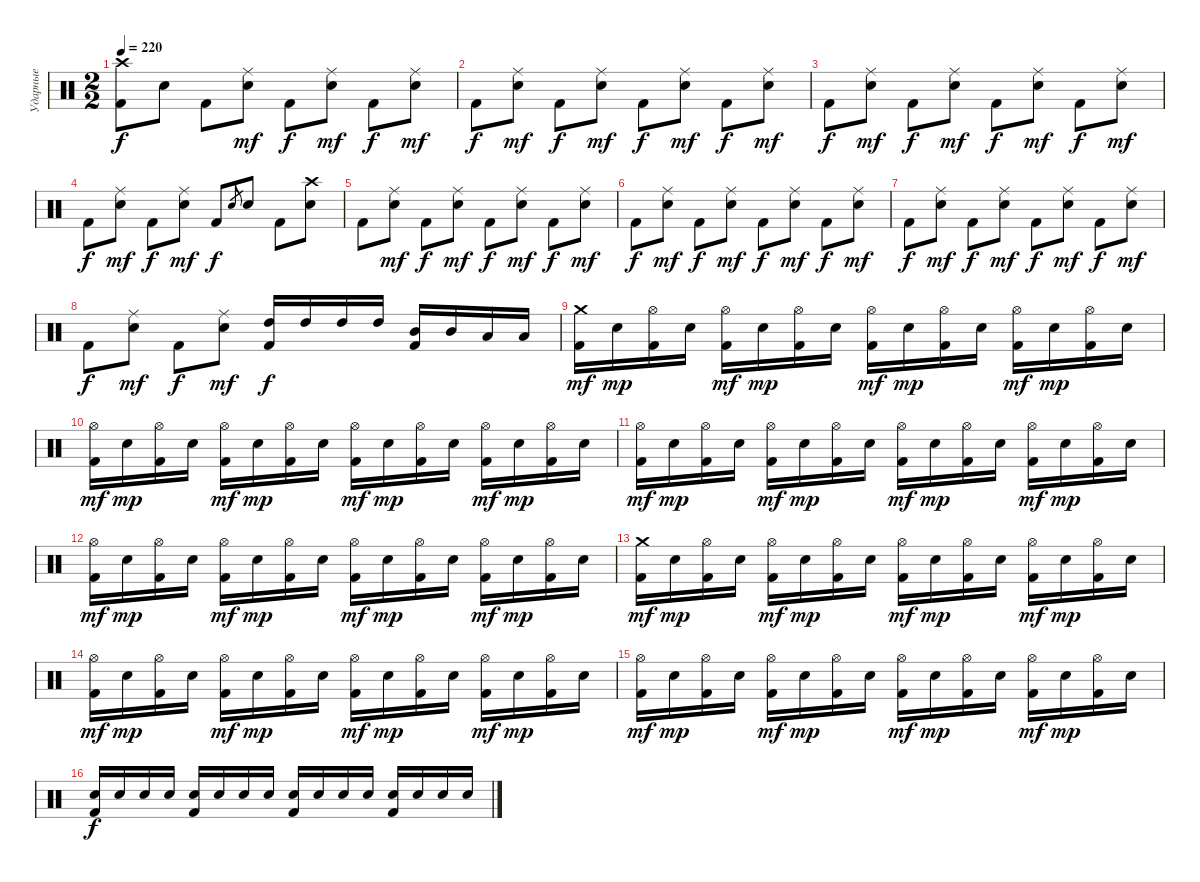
\track ("Ударные" "Ударные") {instrument percussion}
\staff {score}
\articulation defaults
\ts (2 2)
\tempo 220
\clef neutral
\ks c
("Crash high (hit)" "Kick (hit) 2").8{dy f} "Electric Snare (hit)".8 "Kick (hit) 2".8 ("Ride (middle)" "Electric Snare (hit)").8{dy mf} "Kick (hit) 2".8{dy f} ("Ride (middle)" "Electric Snare (hit)").8{dy mf} "Kick (hit) 2".8{dy f} ("Ride (middle)" "Electric Snare (hit)").8{dy mf} |
"Kick (hit) 2".8{dy f} ("Ride (middle)" "Electric Snare (hit)").8{dy mf} "Kick (hit) 2".8{dy f} ("Ride (middle)" "Electric Snare (hit)").8{dy mf} "Kick (hit) 2".8{dy f} ("Ride (middle)" "Electric Snare (hit)").8{dy mf} "Kick (hit) 2".8{dy f} ("Ride (middle)" "Electric Snare (hit)").8{dy mf} |
"Kick (hit) 2".8{dy f} ("Ride (middle)" "Electric Snare (hit)").8{dy mf} "Kick (hit) 2".8{dy f} ("Ride (middle)" "Electric Snare (hit)").8{dy mf} "Kick (hit) 2".8{dy f} ("Ride (middle)" "Electric Snare (hit)").8{dy mf} "Kick (hit) 2".8{dy f} ("Ride (middle)" "Electric Snare (hit)").8{dy mf} |
"Kick (hit) 2".8{dy f} ("Ride (middle)" "Electric Snare (hit)").8{dy mf} "Kick (hit) 2".8{dy f} ("Ride (middle)" "Electric Snare (hit)").8{dy mf} "Kick (hit) 2".8{dy f} "Electric Snare (hit)".8{gr} "Electric Snare (hit)".8 "Kick (hit) 2".8 ("Crash high (hit)" "Electric Snare (hit)").8 |
"Kick (hit) 2".8 ("Ride (middle)" "Electric Snare (hit)").8{dy mf} "Kick (hit) 2".8{dy f} ("Ride (middle)" "Electric Snare (hit)").8{dy mf} "Kick (hit) 2".8{dy f} ("Ride (middle)" "Electric Snare (hit)").8{dy mf} "Kick (hit) 2".8{dy f} ("Ride (middle)" "Electric Snare (hit)").8{dy mf} |
"Kick (hit) 2".8{dy f} ("Ride (middle)" "Electric Snare (hit)").8{dy mf} "Kick (hit) 2".8{dy f} ("Ride (middle)" "Electric Snare (hit)").8{dy mf} "Kick (hit) 2".8{dy f} ("Ride (middle)" "Electric Snare (hit)").8{dy mf} "Kick (hit) 2".8{dy f} ("Ride (middle)" "Electric Snare (hit)").8{dy mf} |
"Kick (hit) 2".8{dy f} ("Ride (middle)" "Electric Snare (hit)").8{dy mf} "Kick (hit) 2".8{dy f} ("Ride (middle)" "Electric Snare (hit)").8{dy mf} "Kick (hit) 2".8{dy f} ("Ride (middle)" "Electric Snare (hit)").8{dy mf} "Kick (hit) 2".8{dy f} ("Ride (middle)" "Electric Snare (hit)").8{dy mf} |
"Kick (hit) 2".8{dy f} ("Ride (middle)" "Electric Snare (hit)").8{dy mf} "Kick (hit) 2".8{dy f} ("Ride (middle)" "Electric Snare (hit)").8{dy mf} ("High Tom (hit)" "Kick (hit) 2").16{dy f} "High Tom (hit)".16 "High Tom (hit)".16 "High Tom (hit)".16 ("Mid Tom (hit)" "Kick (hit) 2").16 "Mid Tom (hit)".16 "Low Tom (hit)".16 "Low Tom (hit)".16 |
("Crash medium (hit)" "Kick (hit) 2").16{dy mf} "Electric Snare (hit)".16{dy mp} ("Hi-Hat (open)" "Kick (hit) 2").16 "Electric Snare (hit)".16 ("Hi-Hat (open)" "Kick (hit) 2").16{dy mf} "Electric Snare (hit)".16{dy mp} ("Hi-Hat (open)" "Kick (hit) 2").16 "Electric Snare (hit)".16 ("Hi-Hat (open)" "Kick (hit) 2").16{dy mf} "Electric Snare (hit)".16{dy mp} ("Hi-Hat (open)" "Kick (hit) 2").16 "Electric Snare (hit)".16 ("Hi-Hat (open)" "Kick (hit) 2").16{dy mf} "Electric Snare (hit)".16{dy mp} ("Hi-Hat (open)" "Kick (hit) 2").16 "Electric Snare (hit)".16 |
("Hi-Hat (open)" "Kick (hit) 2").16{dy mf} "Electric Snare (hit)".16{dy mp} ("Hi-Hat (open)" "Kick (hit) 2").16 "Electric Snare (hit)".16 ("Hi-Hat (open)" "Kick (hit) 2").16{dy mf} "Electric Snare (hit)".16{dy mp} ("Hi-Hat (open)" "Kick (hit) 2").16 "Electric Snare (hit)".16 ("Hi-Hat (open)" "Kick (hit) 2").16{dy mf} "Electric Snare (hit)".16{dy mp} ("Hi-Hat (open)" "Kick (hit) 2").16 "Electric Snare (hit)".16 ("Hi-Hat (open)" "Kick (hit) 2").16{dy mf} "Electric Snare (hit)".16{dy mp} ("Hi-Hat (open)" "Kick (hit) 2").16 "Electric Snare (hit)".16 |
("Hi-Hat (open)" "Kick (hit) 2").16{dy mf} "Electric Snare (hit)".16{dy mp} ("Hi-Hat (open)" "Kick (hit) 2").16 "Electric Snare (hit)".16 ("Hi-Hat (open)" "Kick (hit) 2").16{dy mf} "Electric Snare (hit)".16{dy mp} ("Hi-Hat (open)" "Kick (hit) 2").16 "Electric Snare (hit)".16 ("Hi-Hat (open)" "Kick (hit) 2").16{dy mf} "Electric Snare (hit)".16{dy mp} ("Hi-Hat (open)" "Kick (hit) 2").16 "Electric Snare (hit)".16 ("Hi-Hat (open)" "Kick (hit) 2").16{dy mf} "Electric Snare (hit)".16{dy mp} ("Hi-Hat (open)" "Kick (hit) 2").16 "Electric Snare (hit)".16 |
("Hi-Hat (open)" "Kick (hit) 2").16{dy mf} "Electric Snare (hit)".16{dy mp} ("Hi-Hat (open)" "Kick (hit) 2").16 "Electric Snare (hit)".16 ("Hi-Hat (open)" "Kick (hit) 2").16{dy mf} "Electric Snare (hit)".16{dy mp} ("Hi-Hat (open)" "Kick (hit) 2").16 "Electric Snare (hit)".16 ("Hi-Hat (open)" "Kick (hit) 2").16{dy mf} "Electric Snare (hit)".16{dy mp} ("Hi-Hat (open)" "Kick (hit) 2").16 "Electric Snare (hit)".16 ("Hi-Hat (open)" "Kick (hit) 2").16{dy mf} "Electric Snare (hit)".16{dy mp} ("Hi-Hat (open)" "Kick (hit) 2").16 "Electric Snare (hit)".16 |
("Crash medium (hit)" "Kick (hit) 2").16{dy mf} "Electric Snare (hit)".16{dy mp} ("Hi-Hat (open)" "Kick (hit) 2").16 "Electric Snare (hit)".16 ("Hi-Hat (open)" "Kick (hit) 2").16{dy mf} "Electric Snare (hit)".16{dy mp} ("Hi-Hat (open)" "Kick (hit) 2").16 "Electric Snare (hit)".16 ("Hi-Hat (open)" "Kick (hit) 2").16{dy mf} "Electric Snare (hit)".16{dy mp} ("Hi-Hat (open)" "Kick (hit) 2").16 "Electric Snare (hit)".16 ("Hi-Hat (open)" "Kick (hit) 2").16{dy mf} "Electric Snare (hit)".16{dy mp} ("Hi-Hat (open)" "Kick (hit) 2").16 "Electric Snare (hit)".16 |
("Hi-Hat (open)" "Kick (hit) 2").16{dy mf} "Electric Snare (hit)".16{dy mp} ("Hi-Hat (open)" "Kick (hit) 2").16 "Electric Snare (hit)".16 ("Hi-Hat (open)" "Kick (hit) 2").16{dy mf} "Electric Snare (hit)".16{dy mp} ("Hi-Hat (open)" "Kick (hit) 2").16 "Electric Snare (hit)".16 ("Hi-Hat (open)" "Kick (hit) 2").16{dy mf} "Electric Snare (hit)".16{dy mp} ("Hi-Hat (open)" "Kick (hit) 2").16 "Electric Snare (hit)".16 ("Hi-Hat (open)" "Kick (hit) 2").16{dy mf} "Electric Snare (hit)".16{dy mp} ("Hi-Hat (open)" "Kick (hit) 2").16 "Electric Snare (hit)".16 |
("Hi-Hat (open)" "Kick (hit) 2").16{dy mf} "Electric Snare (hit)".16{dy mp} ("Hi-Hat (open)" "Kick (hit) 2").16 "Electric Snare (hit)".16 ("Hi-Hat (open)" "Kick (hit) 2").16{dy mf} "Electric Snare (hit)".16{dy mp} ("Hi-Hat (open)" "Kick (hit) 2").16 "Electric Snare (hit)".16 ("Hi-Hat (open)" "Kick (hit) 2").16{dy mf} "Electric Snare (hit)".16{dy mp} ("Hi-Hat (open)" "Kick (hit) 2").16 "Electric Snare (hit)".16 ("Hi-Hat (open)" "Kick (hit) 2").16{dy mf} "Electric Snare (hit)".16{dy mp} ("Hi-Hat (open)" "Kick (hit) 2").16 "Electric Snare (hit)".16 |
("Electric Snare (hit)" "Kick (hit) 2").16{dy f} "Electric Snare (hit)".16 "Electric Snare (hit)".16 "Electric Snare (hit)".16 ("Electric Snare (hit)" "Kick (hit) 2").16 "Electric Snare (hit)".16 "Electric Snare (hit)".16 "Electric Snare (hit)".16 ("Electric Snare (hit)" "Kick (hit) 2").16 "Electric Snare (hit)".16 "Electric Snare (hit)".16 "Electric Snare (hit)".16 ("Electric Snare (hit)" "Kick (hit) 2").16 "Electric Snare (hit)".16 "Electric Snare (hit)".16 "Electric Snare (hit)".16
